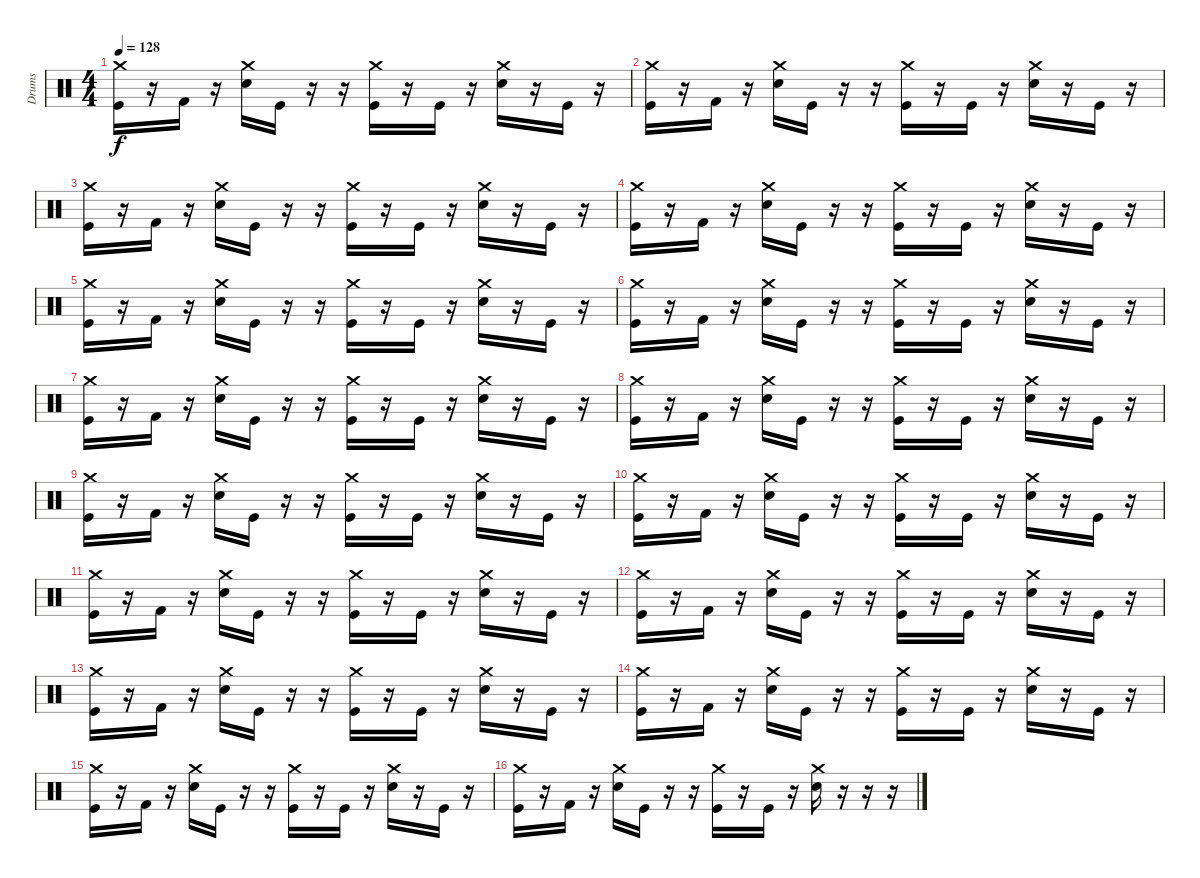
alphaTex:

\track ("Drums" "Drums") {instrument percussion}
\staff {score}
\articulation defaults
\ts (4 4)
\tempo 128
\clef neutral
\ks c
("Crash medium (hit)" "Kick (hit)").16{dy f} r.16 "Kick (hit) 2".16 r.16 ("Crash medium (hit)" "Electric Snare (hit)").16 "Kick (hit)".16 r.16 r.16 ("Crash medium (hit)" "Kick (hit)").16 r.16 "Kick (hit)".16 r.16 ("Crash medium (hit)" "Electric Snare (hit)").16 r.16 "Kick (hit)".16 r.16 |
("Crash medium (hit)" "Kick (hit)").16 r.16 "Kick (hit) 2".16 r.16 ("Crash medium (hit)" "Electric Snare (hit)").16 "Kick (hit)".16 r.16 r.16 ("Crash medium (hit)" "Kick (hit)").16 r.16 "Kick (hit)".16 r.16 ("Crash medium (hit)" "Electric Snare (hit)").16 r.16 "Kick (hit)".16 r.16 |
("Crash medium (hit)" "Kick (hit)").16 r.16 "Kick (hit) 2".16 r.16 ("Crash medium (hit)" "Electric Snare (hit)").16 "Kick (hit)".16 r.16 r.16 ("Crash medium (hit)" "Kick (hit)").16 r.16 "Kick (hit)".16 r.16 ("Crash medium (hit)" "Electric Snare (hit)").16 r.16 "Kick (hit)".16 r.16 |
("Crash medium (hit)" "Kick (hit)").16 r.16 "Kick (hit) 2".16 r.16 ("Crash medium (hit)" "Electric Snare (hit)").16 "Kick (hit)".16 r.16 r.16 ("Crash medium (hit)" "Kick (hit)").16 r.16 "Kick (hit)".16 r.16 ("Crash medium (hit)" "Electric Snare (hit)").16 r.16 "Kick (hit)".16 r.16 |
("Crash medium (hit)" "Kick (hit)").16 r.16 "Kick (hit) 2".16 r.16 ("Crash medium (hit)" "Electric Snare (hit)").16 "Kick (hit)".16 r.16 r.16 ("Crash medium (hit)" "Kick (hit)").16 r.16 "Kick (hit)".16 r.16 ("Crash medium (hit)" "Electric Snare (hit)").16 r.16 "Kick (hit)".16 r.16 |
("Crash medium (hit)" "Kick (hit)").16 r.16 "Kick (hit) 2".16 r.16 ("Crash medium (hit)" "Electric Snare (hit)").16 "Kick (hit)".16 r.16 r.16 ("Crash medium (hit)" "Kick (hit)").16 r.16 "Kick (hit)".16 r.16 ("Crash medium (hit)" "Electric Snare (hit)").16 r.16 "Kick (hit)".16 r.16 |
("Crash medium (hit)" "Kick (hit)").16 r.16 "Kick (hit) 2".16 r.16 ("Crash medium (hit)" "Electric Snare (hit)").16 "Kick (hit)".16 r.16 r.16 ("Crash medium (hit)" "Kick (hit)").16 r.16 "Kick (hit)".16 r.16 ("Crash medium (hit)" "Electric Snare (hit)").16 r.16 "Kick (hit)".16 r.16 |
("Crash medium (hit)" "Kick (hit)").16 r.16 "Kick (hit) 2".16 r.16 ("Crash medium (hit)" "Electric Snare (hit)").16 "Kick (hit)".16 r.16 r.16 ("Crash medium (hit)" "Kick (hit)").16 r.16 "Kick (hit)".16 r.16 ("Crash medium (hit)" "Electric Snare (hit)").16 r.16 "Kick (hit)".16 r.16 |
("Crash medium (hit)" "Kick (hit)").16 r.16 "Kick (hit) 2".16 r.16 ("Crash medium (hit)" "Electric Snare (hit)").16 "Kick (hit)".16 r.16 r.16 ("Crash medium (hit)" "Kick (hit)").16 r.16 "Kick (hit)".16 r.16 ("Crash medium (hit)" "Electric Snare (hit)").16 r.16 "Kick (hit)".16 r.16 |
("Crash medium (hit)" "Kick (hit)").16 r.16 "Kick (hit) 2".16 r.16 ("Crash medium (hit)" "Electric Snare (hit)").16 "Kick (hit)".16 r.16 r.16 ("Crash medium (hit)" "Kick (hit)").16 r.16 "Kick (hit)".16 r.16 ("Crash medium (hit)" "Electric Snare (hit)").16 r.16 "Kick (hit)".16 r.16 |
("Crash medium (hit)" "Kick (hit)").16 r.16 "Kick (hit) 2".16 r.16 ("Crash medium (hit)" "Electric Snare (hit)").16 "Kick (hit)".16 r.16 r.16 ("Crash medium (hit)" "Kick (hit)").16 r.16 "Kick (hit)".16 r.16 ("Crash medium (hit)" "Electric Snare (hit)").16 r.16 "Kick (hit)".16 r.16 |
("Crash medium (hit)" "Kick (hit)").16 r.16 "Kick (hit) 2".16 r.16 ("Crash medium (hit)" "Electric Snare (hit)").16 "Kick (hit)".16 r.16 r.16 ("Crash medium (hit)" "Kick (hit)").16 r.16 "Kick (hit)".16 r.16 ("Crash medium (hit)" "Electric Snare (hit)").16 r.16 "Kick (hit)".16 r.16 |
("Crash medium (hit)" "Kick (hit)").16 r.16 "Kick (hit) 2".16 r.16 ("Crash medium (hit)" "Electric Snare (hit)").16 "Kick (hit)".16 r.16 r.16 ("Crash medium (hit)" "Kick (hit)").16 r.16 "Kick (hit)".16 r.16 ("Crash medium (hit)" "Electric Snare (hit)").16 r.16 "Kick (hit)".16 r.16 |
("Crash medium (hit)" "Kick (hit)").16 r.16 "Kick (hit) 2".16 r.16 ("Crash medium (hit)" "Electric Snare (hit)").16 "Kick (hit)".16 r.16 r.16 ("Crash medium (hit)" "Kick (hit)").16 r.16 "Kick (hit)".16 r.16 ("Crash medium (hit)" "Electric Snare (hit)").16 r.16 "Kick (hit)".16 r.16 |
("Crash medium (hit)" "Kick (hit)").16 r.16 "Kick (hit) 2".16 r.16 ("Crash medium (hit)" "Electric Snare (hit)").16 "Kick (hit)".16 r.16 r.16 ("Crash medium (hit)" "Kick (hit)").16 r.16 "Kick (hit)".16 r.16 ("Crash medium (hit)" "Electric Snare (hit)").16 r.16 "Kick (hit)".16 r.16 |
("Crash medium (hit)" "Kick (hit)").16 r.16 "Kick (hit) 2".16 r.16 ("Crash medium (hit)" "Electric Snare (hit)").16 "Kick (hit)".16 r.16 r.16 ("Crash medium (hit)" "Kick (hit)").16 r.16 "Kick (hit)".16 r.16 ("Crash medium (hit)" "Electric Snare (hit)").16 r.16 r.16 r.16
